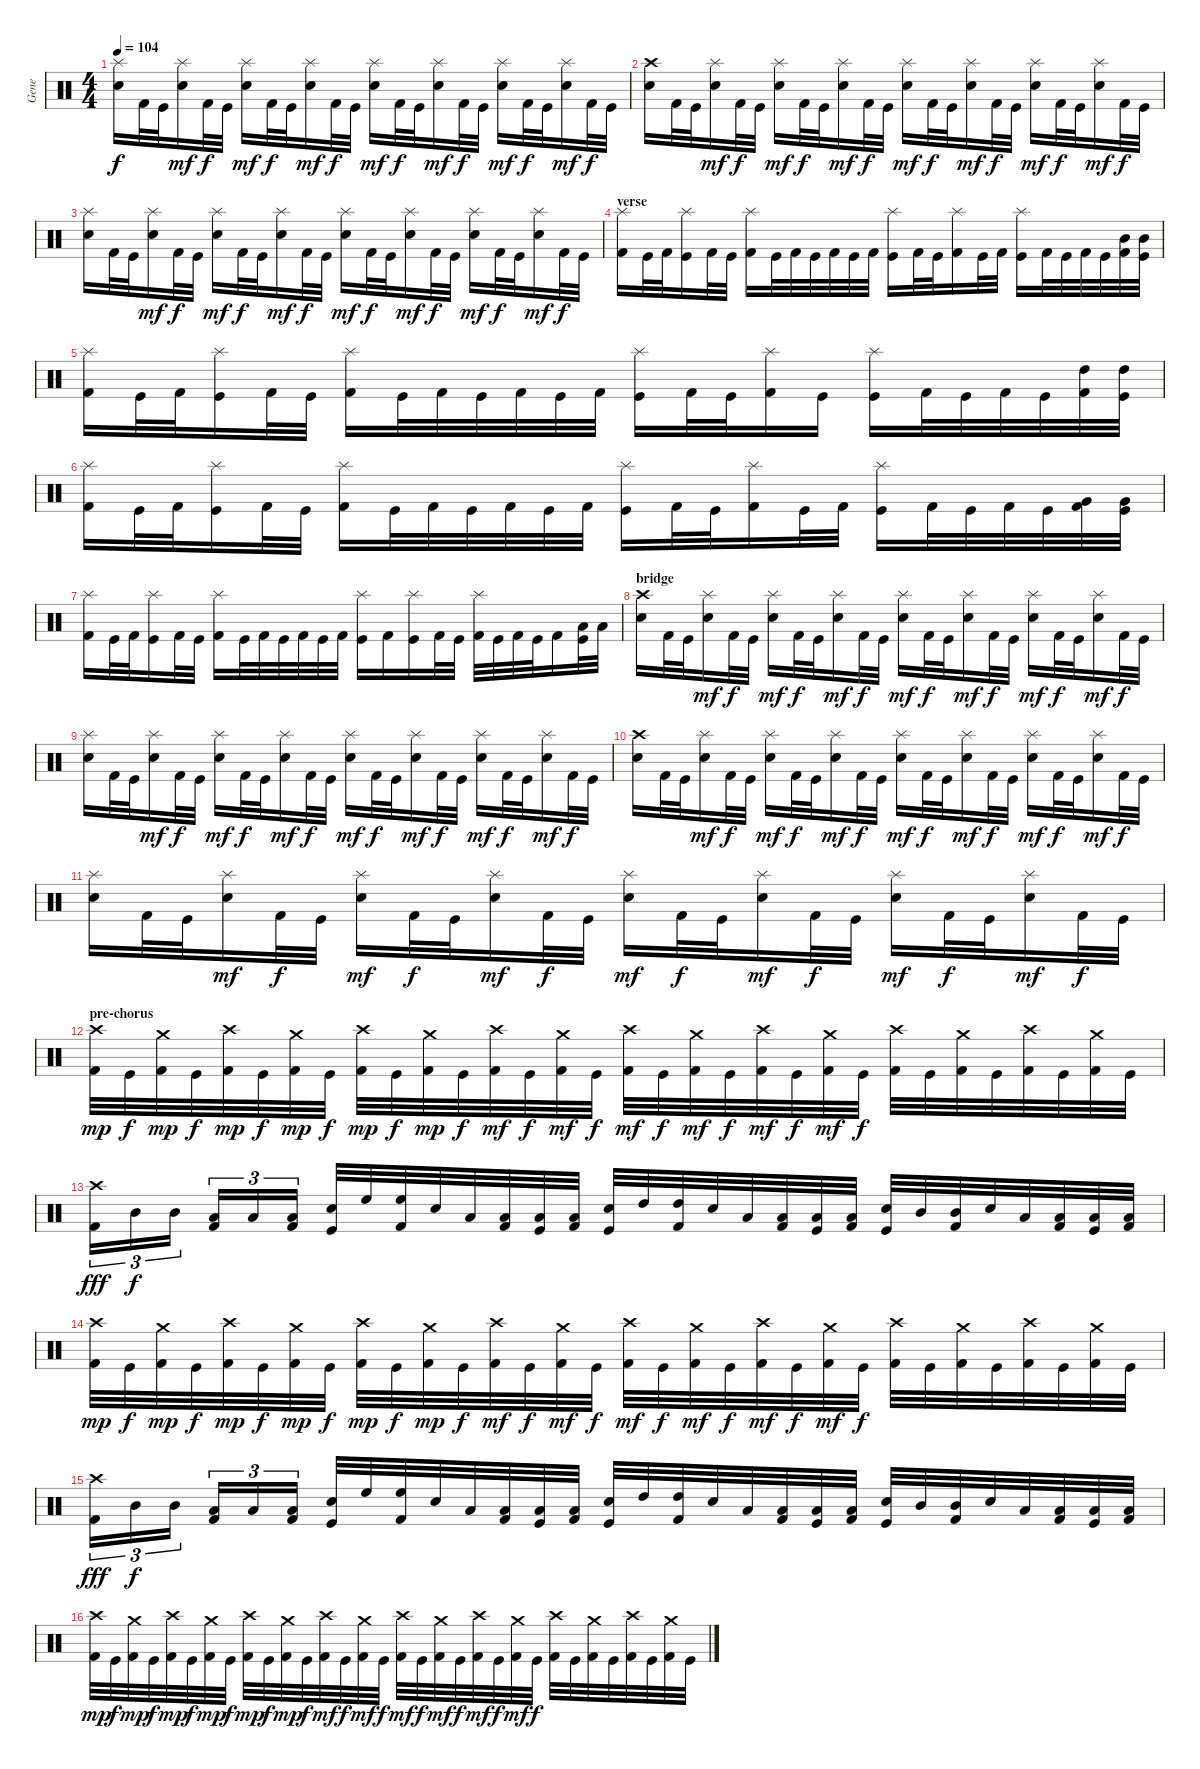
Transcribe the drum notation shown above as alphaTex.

\track ("Gene" "Gene") {instrument percussion}
\staff {score}
\articulation defaults
\ts (4 4)
\tempo 104
\clef neutral
\ks c
("Splash (hit)" "Snare (hit) 2").16{dy f} "Kick (hit) 2".32 "Kick (hit)".32 ("Splash (hit)" "Snare (hit) 2").16{dy mf} "Kick (hit) 2".32{dy f} "Kick (hit)".32 ("Splash (hit)" "Snare (hit) 2").16{dy mf} "Kick (hit) 2".32{dy f} "Kick (hit)".32 ("Splash (hit)" "Snare (hit) 2").16{dy mf} "Kick (hit) 2".32{dy f} "Kick (hit)".32 ("Splash (hit)" "Snare (hit) 2").16{dy mf} "Kick (hit) 2".32{dy f} "Kick (hit)".32 ("Splash (hit)" "Snare (hit) 2").16{dy mf} "Kick (hit) 2".32{dy f} "Kick (hit)".32 ("Splash (hit)" "Snare (hit) 2").16{dy mf} "Kick (hit) 2".32{dy f} "Kick (hit)".32 ("Splash (hit)" "Snare (hit) 2").16{dy mf} "Kick (hit) 2".32{dy f} "Kick (hit)".32 |
("Crash high (hit)" "Snare (hit) 2").16 "Kick (hit) 2".32 "Kick (hit)".32 ("Splash (hit)" "Snare (hit) 2").16{dy mf} "Kick (hit) 2".32{dy f} "Kick (hit)".32 ("Splash (hit)" "Snare (hit) 2").16{dy mf} "Kick (hit) 2".32{dy f} "Kick (hit)".32 ("Splash (hit)" "Snare (hit) 2").16{dy mf} "Kick (hit) 2".32{dy f} "Kick (hit)".32 ("Splash (hit)" "Snare (hit) 2").16{dy mf} "Kick (hit) 2".32{dy f} "Kick (hit)".32 ("Splash (hit)" "Snare (hit) 2").16{dy mf} "Kick (hit) 2".32{dy f} "Kick (hit)".32 ("Splash (hit)" "Snare (hit) 2").16{dy mf} "Kick (hit) 2".32{dy f} "Kick (hit)".32 ("Splash (hit)" "Snare (hit) 2").16{dy mf} "Kick (hit) 2".32{dy f} "Kick (hit)".32 |
("Splash (hit)" "Snare (hit) 2").16 "Kick (hit) 2".32 "Kick (hit)".32 ("Splash (hit)" "Snare (hit) 2").16{dy mf} "Kick (hit) 2".32{dy f} "Kick (hit)".32 ("Splash (hit)" "Snare (hit) 2").16{dy mf} "Kick (hit) 2".32{dy f} "Kick (hit)".32 ("Splash (hit)" "Snare (hit) 2").16{dy mf} "Kick (hit) 2".32{dy f} "Kick (hit)".32 ("Splash (hit)" "Snare (hit) 2").16{dy mf} "Kick (hit) 2".32{dy f} "Kick (hit)".32 ("Splash (hit)" "Snare (hit) 2").16{dy mf} "Kick (hit) 2".32{dy f} "Kick (hit)".32 ("Splash (hit)" "Snare (hit) 2").16{dy mf} "Kick (hit) 2".32{dy f} "Kick (hit)".32 ("Splash (hit)" "Snare (hit) 2").16{dy mf} "Kick (hit) 2".32{dy f} "Kick (hit)".32 |
\section ("" "verse")
("Splash (hit)" "Kick (hit) 2").16 "Kick (hit)".32 "Kick (hit) 2".32 ("Splash (hit)" "Kick (hit)").16 "Kick (hit) 2".32 "Kick (hit)".32 ("Splash (hit)" "Kick (hit) 2").16 "Kick (hit)".32 "Kick (hit) 2".32 "Kick (hit)".32 "Kick (hit) 2".32 "Kick (hit)".32 "Kick (hit) 2".32 ("Splash (hit)" "Kick (hit)").16 "Kick (hit) 2".32 "Kick (hit)".32 ("Splash (hit)" "Kick (hit) 2").16 "Kick (hit)".32 "Kick (hit) 2".32 ("Splash (hit)" "Kick (hit)").16 "Kick (hit) 2".32 "Kick (hit)".32 "Kick (hit) 2".32 "Kick (hit)".32 ("Mid Tom (hit)" "Kick (hit) 2").32 ("Mid Tom (hit)" "Kick (hit)").32 |
("Splash (hit)" "Kick (hit) 2").16 "Kick (hit)".32 "Kick (hit) 2".32 ("Splash (hit)" "Kick (hit)").16 "Kick (hit) 2".32 "Kick (hit)".32 ("Splash (hit)" "Kick (hit) 2").16 "Kick (hit)".32 "Kick (hit) 2".32 "Kick (hit)".32 "Kick (hit) 2".32 "Kick (hit)".32 "Kick (hit) 2".32 ("Splash (hit)" "Kick (hit)").16 "Kick (hit) 2".32 "Kick (hit)".32 ("Splash (hit)" "Kick (hit) 2").16 "Kick (hit)".16 ("Splash (hit)" "Kick (hit)").16 "Kick (hit) 2".32 "Kick (hit)".32 "Kick (hit) 2".32 "Kick (hit)".32 ("High Tom (hit)" "Kick (hit) 2").32 ("High Tom (hit)" "Kick (hit)").32 |
("Splash (hit)" "Kick (hit) 2").16 "Kick (hit)".32 "Kick (hit) 2".32 ("Splash (hit)" "Kick (hit)").16 "Kick (hit) 2".32 "Kick (hit)".32 ("Splash (hit)" "Kick (hit) 2").16 "Kick (hit)".32 "Kick (hit) 2".32 "Kick (hit)".32 "Kick (hit) 2".32 "Kick (hit)".32 "Kick (hit) 2".32 ("Splash (hit)" "Kick (hit)").16 "Kick (hit) 2".32 "Kick (hit)".32 ("Splash (hit)" "Kick (hit) 2").16 "Kick (hit)".32 "Kick (hit) 2".32 ("Splash (hit)" "Kick (hit)").16 "Kick (hit) 2".32 "Kick (hit)".32 "Kick (hit) 2".32 "Kick (hit)".32 ("Very Low Tom (hit)" "Kick (hit) 2").32 ("Very Low Tom (hit)" "Kick (hit)").32 |
("Splash (hit)" "Kick (hit) 2").16 "Kick (hit)".32 "Kick (hit) 2".32 ("Splash (hit)" "Kick (hit)").16 "Kick (hit) 2".32 "Kick (hit)".32 ("Splash (hit)" "Kick (hit) 2").16 "Kick (hit)".32 "Kick (hit) 2".32 "Kick (hit)".32 "Kick (hit) 2".32 "Kick (hit)".32 "Kick (hit) 2".32 ("Splash (hit)" "Kick (hit)").16 "Kick (hit) 2".16 ("Splash (hit)" "Kick (hit)").16 "Kick (hit) 2".32 "Kick (hit)".32 ("Splash (hit)" "Kick (hit) 2").32 "Kick (hit)".32 "Kick (hit) 2".32 "Kick (hit)".32 "Kick (hit) 2".16 ("Low Tom (hit)" "Kick (hit)").32 "Low Tom (hit)".32 |
\section ("" "bridge")
("Crash high (hit)" "Snare (hit) 2").16 "Kick (hit) 2".32 "Kick (hit)".32 ("Splash (hit)" "Snare (hit) 2").16{dy mf} "Kick (hit) 2".32{dy f} "Kick (hit)".32 ("Splash (hit)" "Snare (hit) 2").16{dy mf} "Kick (hit) 2".32{dy f} "Kick (hit)".32 ("Splash (hit)" "Snare (hit) 2").16{dy mf} "Kick (hit) 2".32{dy f} "Kick (hit)".32 ("Splash (hit)" "Snare (hit) 2").16{dy mf} "Kick (hit) 2".32{dy f} "Kick (hit)".32 ("Splash (hit)" "Snare (hit) 2").16{dy mf} "Kick (hit) 2".32{dy f} "Kick (hit)".32 ("Splash (hit)" "Snare (hit) 2").16{dy mf} "Kick (hit) 2".32{dy f} "Kick (hit)".32 ("Splash (hit)" "Snare (hit) 2").16{dy mf} "Kick (hit) 2".32{dy f} "Kick (hit)".32 |
("Splash (hit)" "Snare (hit) 2").16 "Kick (hit) 2".32 "Kick (hit)".32 ("Splash (hit)" "Snare (hit) 2").16{dy mf} "Kick (hit) 2".32{dy f} "Kick (hit)".32 ("Splash (hit)" "Snare (hit) 2").16{dy mf} "Kick (hit) 2".32{dy f} "Kick (hit)".32 ("Splash (hit)" "Snare (hit) 2").16{dy mf} "Kick (hit) 2".32{dy f} "Kick (hit)".32 ("Splash (hit)" "Snare (hit) 2").16{dy mf} "Kick (hit) 2".32{dy f} "Kick (hit)".32 ("Splash (hit)" "Snare (hit) 2").16{dy mf} "Kick (hit) 2".32{dy f} "Kick (hit)".32 ("Splash (hit)" "Snare (hit) 2").16{dy mf} "Kick (hit) 2".32{dy f} "Kick (hit)".32 ("Splash (hit)" "Snare (hit) 2").16{dy mf} "Kick (hit) 2".32{dy f} "Kick (hit)".32 |
("Crash high (hit)" "Snare (hit) 2").16 "Kick (hit) 2".32 "Kick (hit)".32 ("Splash (hit)" "Snare (hit) 2").16{dy mf} "Kick (hit) 2".32{dy f} "Kick (hit)".32 ("Splash (hit)" "Snare (hit) 2").16{dy mf} "Kick (hit) 2".32{dy f} "Kick (hit)".32 ("Splash (hit)" "Snare (hit) 2").16{dy mf} "Kick (hit) 2".32{dy f} "Kick (hit)".32 ("Splash (hit)" "Snare (hit) 2").16{dy mf} "Kick (hit) 2".32{dy f} "Kick (hit)".32 ("Splash (hit)" "Snare (hit) 2").16{dy mf} "Kick (hit) 2".32{dy f} "Kick (hit)".32 ("Splash (hit)" "Snare (hit) 2").16{dy mf} "Kick (hit) 2".32{dy f} "Kick (hit)".32 ("Splash (hit)" "Snare (hit) 2").16{dy mf} "Kick (hit) 2".32{dy f} "Kick (hit)".32 |
("Splash (hit)" "Snare (hit) 2").16 "Kick (hit) 2".32 "Kick (hit)".32 ("Splash (hit)" "Snare (hit) 2").16{dy mf} "Kick (hit) 2".32{dy f} "Kick (hit)".32 ("Splash (hit)" "Snare (hit) 2").16{dy mf} "Kick (hit) 2".32{dy f} "Kick (hit)".32 ("Splash (hit)" "Snare (hit) 2").16{dy mf} "Kick (hit) 2".32{dy f} "Kick (hit)".32 ("Splash (hit)" "Snare (hit) 2").16{dy mf} "Kick (hit) 2".32{dy f} "Kick (hit)".32 ("Splash (hit)" "Snare (hit) 2").16{dy mf} "Kick (hit) 2".32{dy f} "Kick (hit)".32 ("Splash (hit)" "Snare (hit) 2").16{dy mf} "Kick (hit) 2".32{dy f} "Kick (hit)".32 ("Splash (hit)" "Snare (hit) 2").16{dy mf} "Kick (hit) 2".32{dy f} "Kick (hit)".32 |
\section ("" "pre-chorus")
("Crash high (hit)" "Kick (hit) 2").32{dy mp} "Kick (hit)".32{dy f} ("Crash medium (hit)" "Kick (hit) 2").32{dy mp} "Kick (hit)".32{dy f} ("Crash high (hit)" "Kick (hit) 2").32{dy mp} "Kick (hit)".32{dy f} ("Crash medium (hit)" "Kick (hit) 2").32{dy mp} "Kick (hit)".32{dy f} ("Crash high (hit)" "Kick (hit) 2").32{dy mp} "Kick (hit)".32{dy f} ("Crash medium (hit)" "Kick (hit) 2").32{dy mp} "Kick (hit)".32{dy f} ("Crash high (hit)" "Kick (hit) 2").32{dy mf} "Kick (hit)".32{dy f} ("Crash medium (hit)" "Kick (hit) 2").32{dy mf} "Kick (hit)".32{dy f} ("Crash high (hit)" "Kick (hit) 2").32{dy mf} "Kick (hit)".32{dy f} ("Crash medium (hit)" "Kick (hit) 2").32{dy mf} "Kick (hit)".32{dy f} ("Crash high (hit)" "Kick (hit) 2").32{dy mf} "Kick (hit)".32{dy f} ("Crash medium (hit)" "Kick (hit) 2").32{dy mf} "Kick (hit)".32{dy f} ("Crash high (hit)" "Kick (hit) 2").32 "Kick (hit)".32 ("Crash medium (hit)" "Kick (hit) 2").32 "Kick (hit)".32 ("Crash high (hit)" "Kick (hit) 2").32 "Kick (hit)".32 ("Crash medium (hit)" "Kick (hit) 2").32 "Kick (hit)".32 |
("Crash high (hit)" "Kick (hit) 2").16{tu (3 2) dy fff} "Mid Tom (hit)".16{tu (3 2) dy f} "Mid Tom (hit)".16{tu (3 2)} ("Low Tom (hit)" "Kick (hit) 2").16{tu (3 2)} "Low Tom (hit)".16{tu (3 2)} ("Low Tom (hit)" "Kick (hit) 2").16{tu (3 2)} ("Electric Snare (hit)" "Kick (hit)").32 "High Floor Tom (hit)".32 ("High Floor Tom (hit)" "Kick (hit) 2").32 "Electric Snare (hit)".32 "Low Tom (hit)".32 ("Low Tom (hit)" "Kick (hit) 2").32 ("Low Tom (hit)" "Kick (hit)").32 ("Low Tom (hit)" "Kick (hit) 2").32 ("Electric Snare (hit)" "Kick (hit)").32 "High Tom (hit)".32 ("High Tom (hit)" "Kick (hit) 2").32 "Electric Snare (hit)".32 "Low Tom (hit)".32 ("Low Tom (hit)" "Kick (hit) 2").32 ("Low Tom (hit)" "Kick (hit)").32 ("Low Tom (hit)" "Kick (hit) 2").32 ("Electric Snare (hit)" "Kick (hit)").32 "Mid Tom (hit)".32 ("Mid Tom (hit)" "Kick (hit) 2").32 "Electric Snare (hit)".32 "Low Tom (hit)".32 ("Low Tom (hit)" "Kick (hit) 2").32 ("Low Tom (hit)" "Kick (hit)").32 ("Low Tom (hit)" "Kick (hit) 2").32 |
("Crash high (hit)" "Kick (hit) 2").32{dy mp} "Kick (hit)".32{dy f} ("Crash medium (hit)" "Kick (hit) 2").32{dy mp} "Kick (hit)".32{dy f} ("Crash high (hit)" "Kick (hit) 2").32{dy mp} "Kick (hit)".32{dy f} ("Crash medium (hit)" "Kick (hit) 2").32{dy mp} "Kick (hit)".32{dy f} ("Crash high (hit)" "Kick (hit) 2").32{dy mp} "Kick (hit)".32{dy f} ("Crash medium (hit)" "Kick (hit) 2").32{dy mp} "Kick (hit)".32{dy f} ("Crash high (hit)" "Kick (hit) 2").32{dy mf} "Kick (hit)".32{dy f} ("Crash medium (hit)" "Kick (hit) 2").32{dy mf} "Kick (hit)".32{dy f} ("Crash high (hit)" "Kick (hit) 2").32{dy mf} "Kick (hit)".32{dy f} ("Crash medium (hit)" "Kick (hit) 2").32{dy mf} "Kick (hit)".32{dy f} ("Crash high (hit)" "Kick (hit) 2").32{dy mf} "Kick (hit)".32{dy f} ("Crash medium (hit)" "Kick (hit) 2").32{dy mf} "Kick (hit)".32{dy f} ("Crash high (hit)" "Kick (hit) 2").32 "Kick (hit)".32 ("Crash medium (hit)" "Kick (hit) 2").32 "Kick (hit)".32 ("Crash high (hit)" "Kick (hit) 2").32 "Kick (hit)".32 ("Crash medium (hit)" "Kick (hit) 2").32 "Kick (hit)".32 |
("Crash high (hit)" "Kick (hit) 2").16{tu (3 2) dy fff} "Mid Tom (hit)".16{tu (3 2) dy f} "Mid Tom (hit)".16{tu (3 2)} ("Low Tom (hit)" "Kick (hit) 2").16{tu (3 2)} "Low Tom (hit)".16{tu (3 2)} ("Low Tom (hit)" "Kick (hit) 2").16{tu (3 2)} ("Electric Snare (hit)" "Kick (hit)").32 "High Floor Tom (hit)".32 ("High Floor Tom (hit)" "Kick (hit) 2").32 "Electric Snare (hit)".32 "Low Tom (hit)".32 ("Low Tom (hit)" "Kick (hit) 2").32 ("Low Tom (hit)" "Kick (hit)").32 ("Low Tom (hit)" "Kick (hit) 2").32 ("Electric Snare (hit)" "Kick (hit)").32 "High Tom (hit)".32 ("High Tom (hit)" "Kick (hit) 2").32 "Electric Snare (hit)".32 "Low Tom (hit)".32 ("Low Tom (hit)" "Kick (hit) 2").32 ("Low Tom (hit)" "Kick (hit)").32 ("Low Tom (hit)" "Kick (hit) 2").32 ("Electric Snare (hit)" "Kick (hit)").32 "Mid Tom (hit)".32 ("Mid Tom (hit)" "Kick (hit) 2").32 "Electric Snare (hit)".32 "Low Tom (hit)".32 ("Low Tom (hit)" "Kick (hit) 2").32 ("Low Tom (hit)" "Kick (hit)").32 ("Low Tom (hit)" "Kick (hit) 2").32 |
("Crash high (hit)" "Kick (hit) 2").32{dy mp} "Kick (hit)".32{dy f} ("Crash medium (hit)" "Kick (hit) 2").32{dy mp} "Kick (hit)".32{dy f} ("Crash high (hit)" "Kick (hit) 2").32{dy mp} "Kick (hit)".32{dy f} ("Crash medium (hit)" "Kick (hit) 2").32{dy mp} "Kick (hit)".32{dy f} ("Crash high (hit)" "Kick (hit) 2").32{dy mp} "Kick (hit)".32{dy f} ("Crash medium (hit)" "Kick (hit) 2").32{dy mp} "Kick (hit)".32{dy f} ("Crash high (hit)" "Kick (hit) 2").32{dy mf} "Kick (hit)".32{dy f} ("Crash medium (hit)" "Kick (hit) 2").32{dy mf} "Kick (hit)".32{dy f} ("Crash high (hit)" "Kick (hit) 2").32{dy mf} "Kick (hit)".32{dy f} ("Crash medium (hit)" "Kick (hit) 2").32{dy mf} "Kick (hit)".32{dy f} ("Crash high (hit)" "Kick (hit) 2").32{dy mf} "Kick (hit)".32{dy f} ("Crash medium (hit)" "Kick (hit) 2").32{dy mf} "Kick (hit)".32{dy f} ("Crash high (hit)" "Kick (hit) 2").32 "Kick (hit)".32 ("Crash medium (hit)" "Kick (hit) 2").32 "Kick (hit)".32 ("Crash high (hit)" "Kick (hit) 2").32 "Kick (hit)".32 ("Crash medium (hit)" "Kick (hit) 2").32 "Kick (hit)".32
